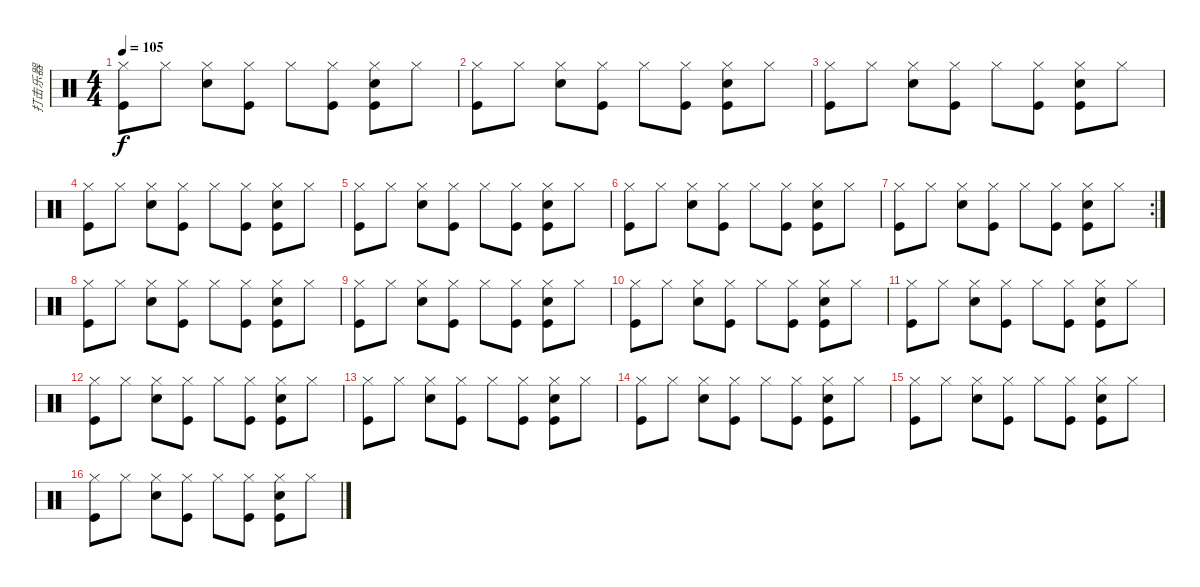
\track ("打击乐器" "打击乐器") {instrument percussion}
\staff {score}
\articulation defaults
\ts (4 4)
\tempo 105
\clef neutral
\ks c
("Hi-Hat (closed)" "Kick (hit)").8{dy f} "Hi-Hat (closed)".8 ("Hi-Hat (closed)" "Snare (hit) 2").8 ("Hi-Hat (closed)" "Kick (hit)").8 "Hi-Hat (closed)".8 ("Hi-Hat (closed)" "Kick (hit)").8 ("Hi-Hat (closed)" "Snare (hit) 2" "Kick (hit)").8 "Hi-Hat (closed)".8 |
("Hi-Hat (closed)" "Kick (hit)").8 "Hi-Hat (closed)".8 ("Hi-Hat (closed)" "Snare (hit) 2").8 ("Hi-Hat (closed)" "Kick (hit)").8 "Hi-Hat (closed)".8 ("Hi-Hat (closed)" "Kick (hit)").8 ("Hi-Hat (closed)" "Snare (hit) 2" "Kick (hit)").8 "Hi-Hat (closed)".8 |
("Hi-Hat (closed)" "Kick (hit)").8 "Hi-Hat (closed)".8 ("Hi-Hat (closed)" "Snare (hit) 2").8 ("Hi-Hat (closed)" "Kick (hit)").8 "Hi-Hat (closed)".8 ("Hi-Hat (closed)" "Kick (hit)").8 ("Hi-Hat (closed)" "Snare (hit) 2" "Kick (hit)").8 "Hi-Hat (closed)".8 |
("Hi-Hat (closed)" "Kick (hit)").8 "Hi-Hat (closed)".8 ("Hi-Hat (closed)" "Snare (hit) 2").8 ("Hi-Hat (closed)" "Kick (hit)").8 "Hi-Hat (closed)".8 ("Hi-Hat (closed)" "Kick (hit)").8 ("Hi-Hat (closed)" "Snare (hit) 2" "Kick (hit)").8 "Hi-Hat (closed)".8 |
("Hi-Hat (closed)" "Kick (hit)").8 "Hi-Hat (closed)".8 ("Hi-Hat (closed)" "Snare (hit) 2").8 ("Hi-Hat (closed)" "Kick (hit)").8 "Hi-Hat (closed)".8 ("Hi-Hat (closed)" "Kick (hit)").8 ("Hi-Hat (closed)" "Snare (hit) 2" "Kick (hit)").8 "Hi-Hat (closed)".8 |
("Hi-Hat (closed)" "Kick (hit)").8 "Hi-Hat (closed)".8 ("Hi-Hat (closed)" "Snare (hit) 2").8 ("Hi-Hat (closed)" "Kick (hit)").8 "Hi-Hat (closed)".8 ("Hi-Hat (closed)" "Kick (hit)").8 ("Hi-Hat (closed)" "Snare (hit) 2" "Kick (hit)").8 "Hi-Hat (closed)".8 |
\rc 2
("Hi-Hat (closed)" "Kick (hit)").8 "Hi-Hat (closed)".8 ("Hi-Hat (closed)" "Snare (hit) 2").8 ("Hi-Hat (closed)" "Kick (hit)").8 "Hi-Hat (closed)".8 ("Hi-Hat (closed)" "Kick (hit)").8 ("Hi-Hat (closed)" "Snare (hit) 2" "Kick (hit)").8 "Hi-Hat (closed)".8 |
("Hi-Hat (closed)" "Kick (hit)").8 "Hi-Hat (closed)".8 ("Hi-Hat (closed)" "Snare (hit) 2").8 ("Hi-Hat (closed)" "Kick (hit)").8 "Hi-Hat (closed)".8 ("Hi-Hat (closed)" "Kick (hit)").8 ("Hi-Hat (closed)" "Snare (hit) 2" "Kick (hit)").8 "Hi-Hat (closed)".8 |
("Hi-Hat (closed)" "Kick (hit)").8 "Hi-Hat (closed)".8 ("Hi-Hat (closed)" "Snare (hit) 2").8 ("Hi-Hat (closed)" "Kick (hit)").8 "Hi-Hat (closed)".8 ("Hi-Hat (closed)" "Kick (hit)").8 ("Hi-Hat (closed)" "Snare (hit) 2" "Kick (hit)").8 "Hi-Hat (closed)".8 |
("Hi-Hat (closed)" "Kick (hit)").8 "Hi-Hat (closed)".8 ("Hi-Hat (closed)" "Snare (hit) 2").8 ("Hi-Hat (closed)" "Kick (hit)").8 "Hi-Hat (closed)".8 ("Hi-Hat (closed)" "Kick (hit)").8 ("Hi-Hat (closed)" "Snare (hit) 2" "Kick (hit)").8 "Hi-Hat (closed)".8 |
("Hi-Hat (closed)" "Kick (hit)").8 "Hi-Hat (closed)".8 ("Hi-Hat (closed)" "Snare (hit) 2").8 ("Hi-Hat (closed)" "Kick (hit)").8 "Hi-Hat (closed)".8 ("Hi-Hat (closed)" "Kick (hit)").8 ("Hi-Hat (closed)" "Snare (hit) 2" "Kick (hit)").8 "Hi-Hat (closed)".8 |
("Hi-Hat (closed)" "Kick (hit)").8 "Hi-Hat (closed)".8 ("Hi-Hat (closed)" "Snare (hit) 2").8 ("Hi-Hat (closed)" "Kick (hit)").8 "Hi-Hat (closed)".8 ("Hi-Hat (closed)" "Kick (hit)").8 ("Hi-Hat (closed)" "Snare (hit) 2" "Kick (hit)").8 "Hi-Hat (closed)".8 |
("Hi-Hat (closed)" "Kick (hit)").8 "Hi-Hat (closed)".8 ("Hi-Hat (closed)" "Snare (hit) 2").8 ("Hi-Hat (closed)" "Kick (hit)").8 "Hi-Hat (closed)".8 ("Hi-Hat (closed)" "Kick (hit)").8 ("Hi-Hat (closed)" "Snare (hit) 2" "Kick (hit)").8 "Hi-Hat (closed)".8 |
("Hi-Hat (closed)" "Kick (hit)").8 "Hi-Hat (closed)".8 ("Hi-Hat (closed)" "Snare (hit) 2").8 ("Hi-Hat (closed)" "Kick (hit)").8 "Hi-Hat (closed)".8 ("Hi-Hat (closed)" "Kick (hit)").8 ("Hi-Hat (closed)" "Snare (hit) 2" "Kick (hit)").8 "Hi-Hat (closed)".8 |
("Hi-Hat (closed)" "Kick (hit)").8 "Hi-Hat (closed)".8 ("Hi-Hat (closed)" "Snare (hit) 2").8 ("Hi-Hat (closed)" "Kick (hit)").8 "Hi-Hat (closed)".8 ("Hi-Hat (closed)" "Kick (hit)").8 ("Hi-Hat (closed)" "Snare (hit) 2" "Kick (hit)").8 "Hi-Hat (closed)".8 |
("Hi-Hat (closed)" "Kick (hit)").8 "Hi-Hat (closed)".8 ("Hi-Hat (closed)" "Snare (hit) 2").8 ("Hi-Hat (closed)" "Kick (hit)").8 "Hi-Hat (closed)".8 ("Hi-Hat (closed)" "Kick (hit)").8 ("Hi-Hat (closed)" "Snare (hit) 2" "Kick (hit)").8 "Hi-Hat (closed)".8
